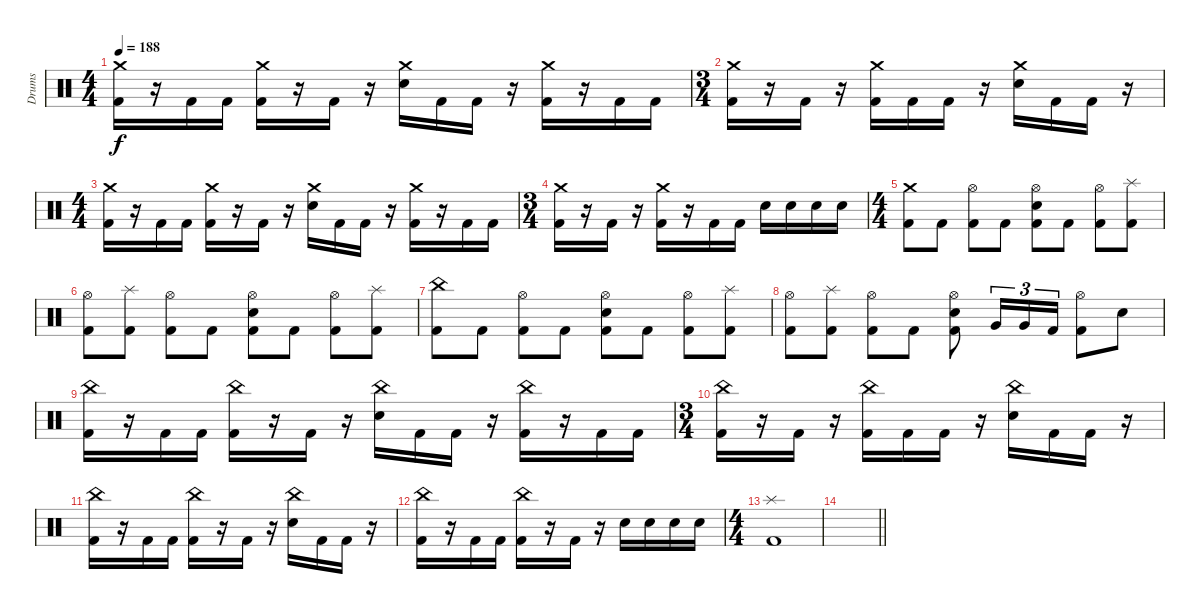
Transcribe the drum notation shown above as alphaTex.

\track ("Drums" "Drums") {instrument percussion}
\staff {score}
\articulation defaults
\ts (4 4)
\tempo 188
\clef neutral
\ks c
("Crash medium (hit)" "Kick (hit) 2").16{dy f} r.16 "Kick (hit) 2".16 "Kick (hit) 2".16 ("Crash medium (hit)" "Kick (hit) 2").16 r.16 "Kick (hit) 2".16 r.16 ("Crash medium (hit)" "Snare (hit) 2").16 "Kick (hit) 2".16 "Kick (hit) 2".16 r.16 ("Crash medium (hit)" "Kick (hit) 2").16 r.16 "Kick (hit) 2".16 "Kick (hit) 2".16 |
\ts (3 4)
("Crash medium (hit)" "Kick (hit) 2").16 r.16 "Kick (hit) 2".16 r.16 ("Crash medium (hit)" "Kick (hit) 2").16 "Kick (hit) 2".16 "Kick (hit) 2".16 r.16 ("Crash medium (hit)" "Snare (hit) 2").16 "Kick (hit) 2".16 "Kick (hit) 2".16 r.16 |
\ts (4 4)
("Crash medium (hit)" "Kick (hit) 2").16 r.16 "Kick (hit) 2".16 "Kick (hit) 2".16 ("Crash medium (hit)" "Kick (hit) 2").16 r.16 "Kick (hit) 2".16 r.16 ("Crash medium (hit)" "Snare (hit) 2").16 "Kick (hit) 2".16 "Kick (hit) 2".16 r.16 ("Crash medium (hit)" "Kick (hit) 2").16 r.16 "Kick (hit) 2".16 "Kick (hit) 2".16 |
\ts (3 4)
("Crash medium (hit)" "Kick (hit) 2").16 r.16 "Kick (hit) 2".16 r.16 ("Crash medium (hit)" "Kick (hit) 2").16 r.16 "Kick (hit) 2".16 "Kick (hit) 2".16 "Snare (hit) 2".16 "Snare (hit) 2".16 "Snare (hit) 2".16 "Snare (hit) 2".16 |
\ts (4 4)
("Crash medium (hit)" "Kick (hit) 2").8 "Kick (hit) 2".8 ("Hi-Hat (open)" "Kick (hit) 2").8 "Kick (hit) 2".8 ("Hi-Hat (open)" "Snare (hit) 2" "Kick (hit) 2").8 "Kick (hit) 2".8 ("Hi-Hat (open)" "Kick (hit) 2").8 ("Splash (hit)" "Kick (hit) 2").8 |
("Hi-Hat (open)" "Kick (hit) 2").8 ("Splash (hit)" "Kick (hit) 2").8 ("Hi-Hat (open)" "Kick (hit) 2").8 "Kick (hit) 2".8 ("Hi-Hat (open)" "Snare (hit) 2" "Kick (hit) 2").8 "Kick (hit) 2".8 ("Hi-Hat (open)" "Kick (hit) 2").8 ("Splash (hit)" "Kick (hit) 2").8 |
("China (hit)" "Kick (hit) 2").8 "Kick (hit) 2".8 ("Hi-Hat (open)" "Kick (hit) 2").8 "Kick (hit) 2".8 ("Hi-Hat (open)" "Snare (hit) 2" "Kick (hit) 2").8 "Kick (hit) 2".8 ("Hi-Hat (open)" "Kick (hit) 2").8 ("Splash (hit)" "Kick (hit) 2").8 |
("Hi-Hat (open)" "Kick (hit) 2").8 ("Splash (hit)" "Kick (hit) 2").8 ("Hi-Hat (open)" "Kick (hit) 2").8 "Kick (hit) 2".8 ("Hi-Hat (open)" "Snare (hit) 2" "Kick (hit) 2").8 "Very Low Tom (hit)".16{tu (3 2)} "Very Low Tom (hit)".16{tu (3 2)} "Kick (hit) 2".16{tu (3 2)} ("Hi-Hat (open)" "Kick (hit) 2").8 "Snare (hit) 2".8 |
("China (hit)" "Kick (hit) 2").16 r.16 "Kick (hit) 2".16 "Kick (hit) 2".16 ("China (hit)" "Kick (hit) 2").16 r.16 "Kick (hit) 2".16 r.16 ("China (hit)" "Snare (hit) 2").16 "Kick (hit) 2".16 "Kick (hit) 2".16 r.16 ("China (hit)" "Kick (hit) 2").16 r.16 "Kick (hit) 2".16 "Kick (hit) 2".16 |
\ts (3 4)
("China (hit)" "Kick (hit) 2").16 r.16 "Kick (hit) 2".16 r.16 ("China (hit)" "Kick (hit) 2").16 "Kick (hit) 2".16 "Kick (hit) 2".16 r.16 ("China (hit)" "Snare (hit) 2").16 "Kick (hit) 2".16 "Kick (hit) 2".16 r.16 |
("China (hit)" "Kick (hit) 2").16 r.16 "Kick (hit) 2".16 "Kick (hit) 2".16 ("China (hit)" "Kick (hit) 2").16 r.16 "Kick (hit) 2".16 r.16 ("China (hit)" "Snare (hit) 2").16 "Kick (hit) 2".16 "Kick (hit) 2".16 r.16 |
("China (hit)" "Kick (hit) 2").16 r.16 "Kick (hit) 2".16 "Kick (hit) 2".16 ("China (hit)" "Kick (hit) 2").16 r.16 "Kick (hit) 2".16 r.16 "Snare (hit) 2".16 "Snare (hit) 2".16 "Snare (hit) 2".16 "Snare (hit) 2".16 |
\ts (4 4)
("Splash (hit)" "Kick (hit) 2").1 |
\barLineRight lightlight
